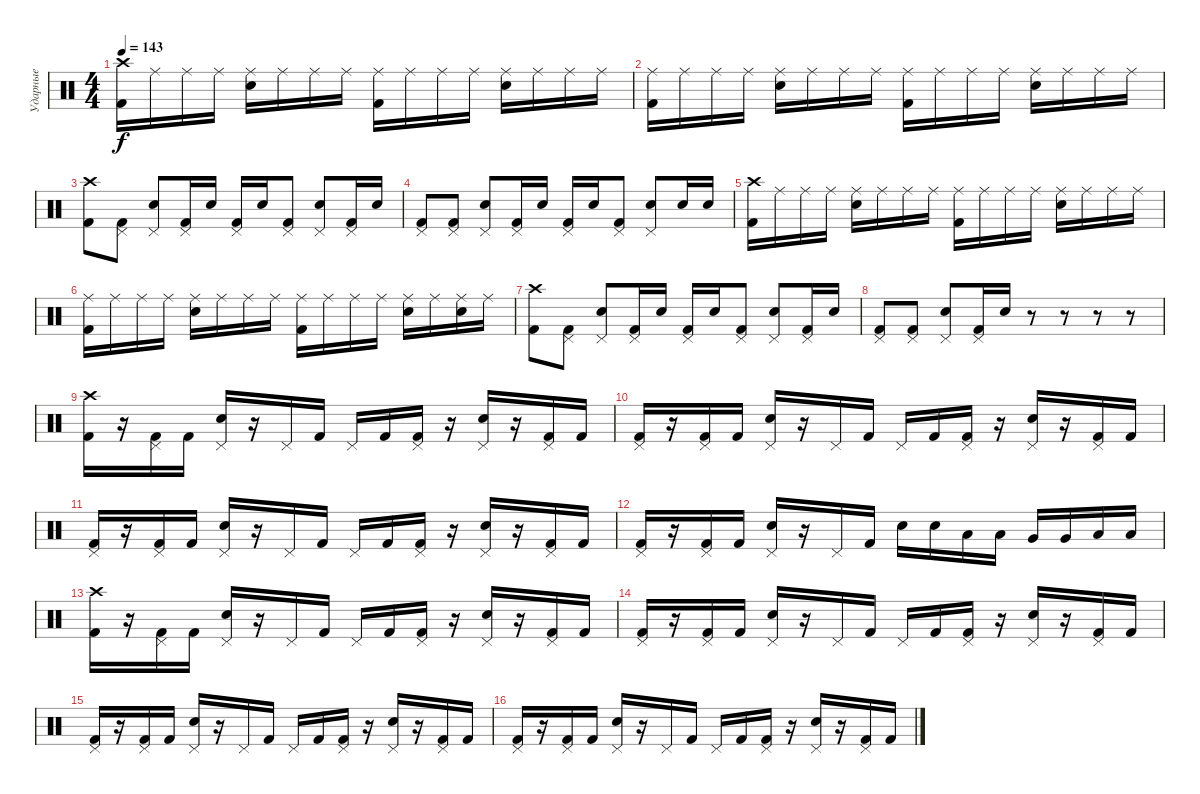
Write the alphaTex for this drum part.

\track ("Ударные" "Ударные") {instrument percussion}
\staff {score}
\articulation defaults
\ts (4 4)
\tempo 143
\clef neutral
\ks c
("Crash high (hit)" "Kick (hit) 2").16{dy f} "Ride (middle)".16 "Ride (middle)".16 "Ride (middle)".16 ("Ride (middle)" "Electric Snare (hit)").16 "Ride (middle)".16 "Ride (middle)".16 "Ride (middle)".16 ("Ride (middle)" "Kick (hit) 2").16 "Ride (middle)".16 "Ride (middle)".16 "Ride (middle)".16 ("Ride (middle)" "Electric Snare (hit)").16 "Ride (middle)".16 "Ride (middle)".16 "Ride (middle)".16 |
("Ride (middle)" "Kick (hit) 2").16 "Ride (middle)".16 "Ride (middle)".16 "Ride (middle)".16 ("Ride (middle)" "Electric Snare (hit)").16 "Ride (middle)".16 "Ride (middle)".16 "Ride (middle)".16 ("Ride (middle)" "Kick (hit) 2").16 "Ride (middle)".16 "Ride (middle)".16 "Ride (middle)".16 ("Ride (middle)" "Electric Snare (hit)").16 "Ride (middle)".16 "Ride (middle)".16 "Ride (middle)".16 |
("Crash high (hit)" "Kick (hit) 2").8 ("Pedal Hi-Hat (hit)" "Kick (hit) 2").8 ("Pedal Hi-Hat (hit)" "Electric Snare (hit)").8 ("Pedal Hi-Hat (hit)" "Kick (hit) 2").16 "Electric Snare (hit)".16 ("Pedal Hi-Hat (hit)" "Kick (hit) 2").16 "Electric Snare (hit)".16 ("Pedal Hi-Hat (hit)" "Kick (hit) 2").8 ("Pedal Hi-Hat (hit)" "Electric Snare (hit)").8 ("Pedal Hi-Hat (hit)" "Kick (hit) 2").16 "Electric Snare (hit)".16 |
("Pedal Hi-Hat (hit)" "Kick (hit) 2").8 ("Pedal Hi-Hat (hit)" "Kick (hit) 2").8 ("Pedal Hi-Hat (hit)" "Electric Snare (hit)").8 ("Pedal Hi-Hat (hit)" "Kick (hit) 2").16 "Electric Snare (hit)".16 ("Pedal Hi-Hat (hit)" "Kick (hit) 2").16 "Electric Snare (hit)".16 ("Pedal Hi-Hat (hit)" "Kick (hit) 2").8 ("Pedal Hi-Hat (hit)" "Electric Snare (hit)").8 "Electric Snare (hit)".16 "Electric Snare (hit)".16 |
("Crash high (hit)" "Kick (hit) 2").16 "Ride (middle)".16 "Ride (middle)".16 "Ride (middle)".16 ("Ride (middle)" "Electric Snare (hit)").16 "Ride (middle)".16 "Ride (middle)".16 "Ride (middle)".16 ("Ride (middle)" "Kick (hit) 2").16 "Ride (middle)".16 "Ride (middle)".16 "Ride (middle)".16 ("Ride (middle)" "Electric Snare (hit)").16 "Ride (middle)".16 "Ride (middle)".16 "Ride (middle)".16 |
("Ride (middle)" "Kick (hit) 2").16 "Ride (middle)".16 "Ride (middle)".16 "Ride (middle)".16 ("Ride (middle)" "Electric Snare (hit)").16 "Ride (middle)".16 "Ride (middle)".16 "Ride (middle)".16 ("Ride (middle)" "Kick (hit) 2").16 "Ride (middle)".16 "Ride (middle)".16 "Ride (middle)".16 ("Ride (middle)" "Electric Snare (hit)").16 "Ride (middle)".16 ("Ride (middle)" "Electric Snare (hit)").16 "Ride (middle)".16 |
("Crash high (hit)" "Kick (hit) 2").8 ("Pedal Hi-Hat (hit)" "Kick (hit) 2").8 ("Pedal Hi-Hat (hit)" "Electric Snare (hit)").8 ("Pedal Hi-Hat (hit)" "Kick (hit) 2").16 "Electric Snare (hit)".16 ("Pedal Hi-Hat (hit)" "Kick (hit) 2").16 "Electric Snare (hit)".16 ("Pedal Hi-Hat (hit)" "Kick (hit) 2").8 ("Pedal Hi-Hat (hit)" "Electric Snare (hit)").8 ("Pedal Hi-Hat (hit)" "Kick (hit) 2").16 "Electric Snare (hit)".16 |
("Pedal Hi-Hat (hit)" "Kick (hit) 2").8 ("Pedal Hi-Hat (hit)" "Kick (hit) 2").8 ("Pedal Hi-Hat (hit)" "Electric Snare (hit)").8 ("Pedal Hi-Hat (hit)" "Kick (hit) 2").16 "Electric Snare (hit)".16 r.8 r.8 r.8 r.8 |
("Crash high (hit)" "Kick (hit) 2").16 r.16 ("Pedal Hi-Hat (hit)" "Kick (hit) 2").16 "Kick (hit) 2".16 ("Pedal Hi-Hat (hit)" "Electric Snare (hit)").16 r.16 "Pedal Hi-Hat (hit)".16 "Kick (hit) 2".16 "Pedal Hi-Hat (hit)".16 "Kick (hit) 2".16 ("Pedal Hi-Hat (hit)" "Kick (hit) 2").16 r.16 ("Pedal Hi-Hat (hit)" "Electric Snare (hit)").16 r.16 ("Pedal Hi-Hat (hit)" "Kick (hit) 2").16 "Kick (hit) 2".16 |
("Pedal Hi-Hat (hit)" "Kick (hit) 2").16 r.16 ("Pedal Hi-Hat (hit)" "Kick (hit) 2").16 "Kick (hit) 2".16 ("Pedal Hi-Hat (hit)" "Electric Snare (hit)").16 r.16 "Pedal Hi-Hat (hit)".16 "Kick (hit) 2".16 "Pedal Hi-Hat (hit)".16 "Kick (hit) 2".16 ("Pedal Hi-Hat (hit)" "Kick (hit) 2").16 r.16 ("Pedal Hi-Hat (hit)" "Electric Snare (hit)").16 r.16 ("Pedal Hi-Hat (hit)" "Kick (hit) 2").16 "Kick (hit) 2".16 |
("Pedal Hi-Hat (hit)" "Kick (hit) 2").16 r.16 ("Pedal Hi-Hat (hit)" "Kick (hit) 2").16 "Kick (hit) 2".16 ("Pedal Hi-Hat (hit)" "Electric Snare (hit)").16 r.16 "Pedal Hi-Hat (hit)".16 "Kick (hit) 2".16 "Pedal Hi-Hat (hit)".16 "Kick (hit) 2".16 ("Pedal Hi-Hat (hit)" "Kick (hit) 2").16 r.16 ("Pedal Hi-Hat (hit)" "Electric Snare (hit)").16 r.16 ("Pedal Hi-Hat (hit)" "Kick (hit) 2").16 "Kick (hit) 2".16 |
("Pedal Hi-Hat (hit)" "Kick (hit) 2").16 r.16 ("Pedal Hi-Hat (hit)" "Kick (hit) 2").16 "Kick (hit) 2".16 ("Pedal Hi-Hat (hit)" "Electric Snare (hit)").16 r.16 "Pedal Hi-Hat (hit)".16 "Kick (hit) 2".16 "Electric Snare (hit)".16 "Electric Snare (hit)".16 "Low Tom (hit)".16 "Low Tom (hit)".16 "Very Low Tom (hit)".16 "Very Low Tom (hit)".16 "Low Floor Tom (hit)".16 "Low Floor Tom (hit)".16 |
("Crash high (hit)" "Kick (hit) 2").16 r.16 ("Pedal Hi-Hat (hit)" "Kick (hit) 2").16 "Kick (hit) 2".16 ("Pedal Hi-Hat (hit)" "Electric Snare (hit)").16 r.16 "Pedal Hi-Hat (hit)".16 "Kick (hit) 2".16 "Pedal Hi-Hat (hit)".16 "Kick (hit) 2".16 ("Pedal Hi-Hat (hit)" "Kick (hit) 2").16 r.16 ("Pedal Hi-Hat (hit)" "Electric Snare (hit)").16 r.16 ("Pedal Hi-Hat (hit)" "Kick (hit) 2").16 "Kick (hit) 2".16 |
("Pedal Hi-Hat (hit)" "Kick (hit) 2").16 r.16 ("Pedal Hi-Hat (hit)" "Kick (hit) 2").16 "Kick (hit) 2".16 ("Pedal Hi-Hat (hit)" "Electric Snare (hit)").16 r.16 "Pedal Hi-Hat (hit)".16 "Kick (hit) 2".16 "Pedal Hi-Hat (hit)".16 "Kick (hit) 2".16 ("Pedal Hi-Hat (hit)" "Kick (hit) 2").16 r.16 ("Pedal Hi-Hat (hit)" "Electric Snare (hit)").16 r.16 ("Pedal Hi-Hat (hit)" "Kick (hit) 2").16 "Kick (hit) 2".16 |
("Pedal Hi-Hat (hit)" "Kick (hit) 2").16 r.16 ("Pedal Hi-Hat (hit)" "Kick (hit) 2").16 "Kick (hit) 2".16 ("Pedal Hi-Hat (hit)" "Electric Snare (hit)").16 r.16 "Pedal Hi-Hat (hit)".16 "Kick (hit) 2".16 "Pedal Hi-Hat (hit)".16 "Kick (hit) 2".16 ("Pedal Hi-Hat (hit)" "Kick (hit) 2").16 r.16 ("Pedal Hi-Hat (hit)" "Electric Snare (hit)").16 r.16 ("Pedal Hi-Hat (hit)" "Kick (hit) 2").16 "Kick (hit) 2".16 |
("Pedal Hi-Hat (hit)" "Kick (hit) 2").16 r.16 ("Pedal Hi-Hat (hit)" "Kick (hit) 2").16 "Kick (hit) 2".16 ("Pedal Hi-Hat (hit)" "Electric Snare (hit)").16 r.16 "Pedal Hi-Hat (hit)".16 "Kick (hit) 2".16 "Pedal Hi-Hat (hit)".16 "Kick (hit) 2".16 ("Pedal Hi-Hat (hit)" "Kick (hit) 2").16 r.16 ("Pedal Hi-Hat (hit)" "Electric Snare (hit)").16 r.16 ("Pedal Hi-Hat (hit)" "Kick (hit) 2").16 "Kick (hit) 2".16
